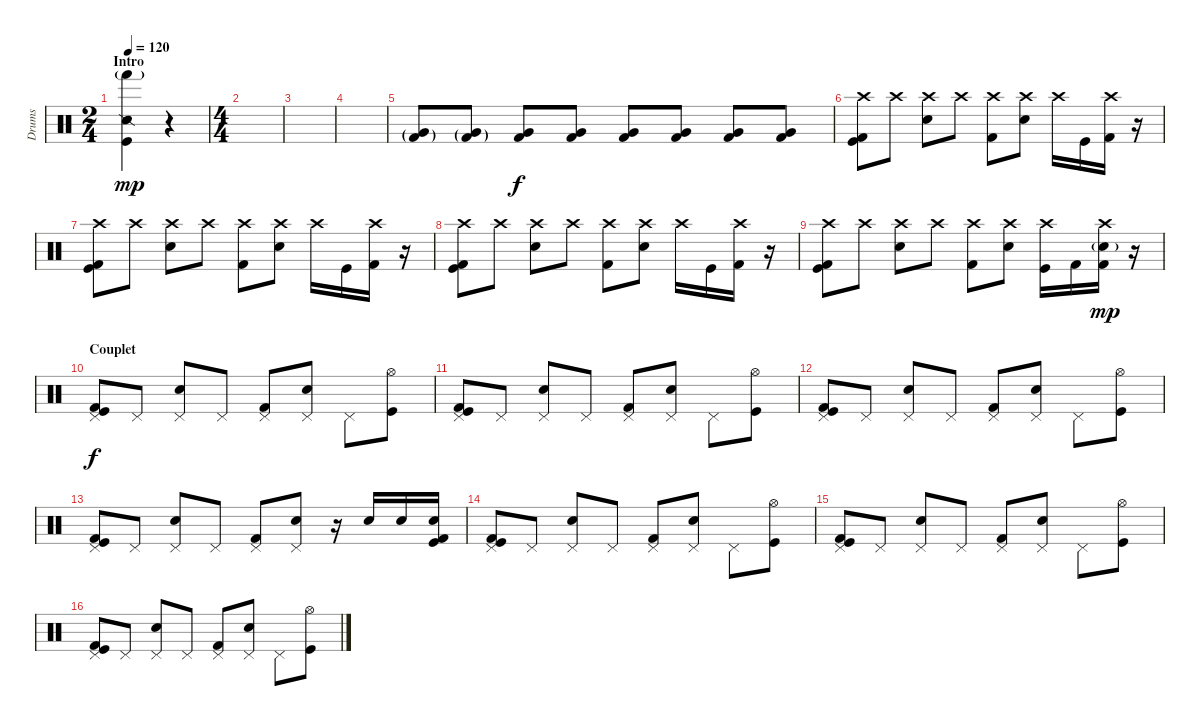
\track ("Drums" "Drums") {instrument percussion}
\staff {score}
\articulation defaults
\ts (2 4)
\section ("" "Intro")
\tempo 120
\clef neutral
\ks c
("Hand (hit)"{g} "Kick (hit)" "Snare (side stick) 2").4{dy mp} r.4 |
\ts (4 4)
|
|
|
("Very Low Tom (hit)"{g} "Kick (hit) 2"{g}).8 ("Very Low Tom (hit)"{g} "Kick (hit) 2"{g}).8 ("Very Low Tom (hit)" "Kick (hit) 2").8{dy f} ("Very Low Tom (hit)" "Kick (hit) 2").8{volume 13} ("Very Low Tom (hit)" "Kick (hit) 2").8 ("Very Low Tom (hit)" "Kick (hit) 2").8 ("Very Low Tom (hit)" "Kick (hit) 2").8 ("Very Low Tom (hit)" "Kick (hit) 2").8 |
("Crash high (hit)" "Kick (hit) 2" "Kick (hit)").8 "Crash high (hit)".8 ("Crash high (hit)" "Electric Snare (hit)").8 "Crash high (hit)".8 ("Crash high (hit)" "Kick (hit) 2").8 ("Crash high (hit)" "Electric Snare (hit)").8 "Crash high (hit)".16 "Kick (hit)".16 ("Crash high (hit)" "Kick (hit) 2").16 r.16 |
("Crash high (hit)" "Kick (hit) 2" "Kick (hit)").8 "Crash high (hit)".8 ("Crash high (hit)" "Electric Snare (hit)").8 "Crash high (hit)".8 ("Crash high (hit)" "Kick (hit) 2").8 ("Crash high (hit)" "Electric Snare (hit)").8 "Crash high (hit)".16 "Kick (hit)".16 ("Crash high (hit)" "Kick (hit) 2").16 r.16 |
("Crash high (hit)" "Kick (hit) 2" "Kick (hit)").8 "Crash high (hit)".8 ("Crash high (hit)" "Electric Snare (hit)").8 "Crash high (hit)".8 ("Crash high (hit)" "Kick (hit) 2").8 ("Crash high (hit)" "Electric Snare (hit)").8 "Crash high (hit)".16 "Kick (hit)".16 ("Crash high (hit)" "Kick (hit) 2").16 r.16 |
("Crash high (hit)" "Kick (hit) 2" "Kick (hit)").8 "Crash high (hit)".8 ("Crash high (hit)" "Electric Snare (hit)").8 "Crash high (hit)".8 ("Crash high (hit)" "Kick (hit) 2").8 ("Crash high (hit)" "Electric Snare (hit)").8 ("Crash high (hit)" "Kick (hit)").16 "Kick (hit) 2".16 ("Crash high (hit)" "Electric Snare (hit)"{g} "Kick (hit) 2").16{dy mp} r.16 |
\section ("" "Couplet")
("Pedal Hi-Hat (hit)" "Kick (hit) 2" "Kick (hit)").8{dy f} "Pedal Hi-Hat (hit)".8 ("Pedal Hi-Hat (hit)" "Electric Snare (hit)").8 "Pedal Hi-Hat (hit)".8 ("Pedal Hi-Hat (hit)" "Kick (hit) 2").8 ("Pedal Hi-Hat (hit)" "Electric Snare (hit)").8 "Pedal Hi-Hat (hit)".8 ("Hi-Hat (open)" "Kick (hit)").8 |
("Pedal Hi-Hat (hit)" "Kick (hit) 2" "Kick (hit)").8 "Pedal Hi-Hat (hit)".8 ("Pedal Hi-Hat (hit)" "Electric Snare (hit)").8 "Pedal Hi-Hat (hit)".8 ("Pedal Hi-Hat (hit)" "Kick (hit) 2").8 ("Pedal Hi-Hat (hit)" "Electric Snare (hit)").8 "Pedal Hi-Hat (hit)".8 ("Hi-Hat (open)" "Kick (hit)").8 |
("Pedal Hi-Hat (hit)" "Kick (hit) 2" "Kick (hit)").8 "Pedal Hi-Hat (hit)".8 ("Pedal Hi-Hat (hit)" "Electric Snare (hit)").8 "Pedal Hi-Hat (hit)".8 ("Pedal Hi-Hat (hit)" "Kick (hit) 2").8 ("Pedal Hi-Hat (hit)" "Electric Snare (hit)").8 "Pedal Hi-Hat (hit)".8 ("Hi-Hat (open)" "Kick (hit)").8 |
("Pedal Hi-Hat (hit)" "Kick (hit) 2" "Kick (hit)").8 "Pedal Hi-Hat (hit)".8 ("Pedal Hi-Hat (hit)" "Electric Snare (hit)").8 "Pedal Hi-Hat (hit)".8 ("Pedal Hi-Hat (hit)" "Kick (hit) 2").8 ("Pedal Hi-Hat (hit)" "Electric Snare (hit)").8 r.16 "Electric Snare (hit)".16 "Electric Snare (hit)".16 ("Electric Snare (hit)" "Kick (hit)" "Kick (hit) 2").16 |
("Pedal Hi-Hat (hit)" "Kick (hit) 2" "Kick (hit)").8 "Pedal Hi-Hat (hit)".8 ("Pedal Hi-Hat (hit)" "Electric Snare (hit)").8 "Pedal Hi-Hat (hit)".8 ("Pedal Hi-Hat (hit)" "Kick (hit) 2").8 ("Pedal Hi-Hat (hit)" "Electric Snare (hit)").8 "Pedal Hi-Hat (hit)".8 ("Hi-Hat (open)" "Kick (hit)").8 |
("Pedal Hi-Hat (hit)" "Kick (hit) 2" "Kick (hit)").8 "Pedal Hi-Hat (hit)".8 ("Pedal Hi-Hat (hit)" "Electric Snare (hit)").8 "Pedal Hi-Hat (hit)".8 ("Pedal Hi-Hat (hit)" "Kick (hit) 2").8 ("Pedal Hi-Hat (hit)" "Electric Snare (hit)").8 "Pedal Hi-Hat (hit)".8 ("Hi-Hat (open)" "Kick (hit)").8 |
("Pedal Hi-Hat (hit)" "Kick (hit) 2" "Kick (hit)").8 "Pedal Hi-Hat (hit)".8 ("Pedal Hi-Hat (hit)" "Electric Snare (hit)").8 "Pedal Hi-Hat (hit)".8 ("Pedal Hi-Hat (hit)" "Kick (hit) 2").8 ("Pedal Hi-Hat (hit)" "Electric Snare (hit)").8 "Pedal Hi-Hat (hit)".8 ("Hi-Hat (open)" "Kick (hit)").8
